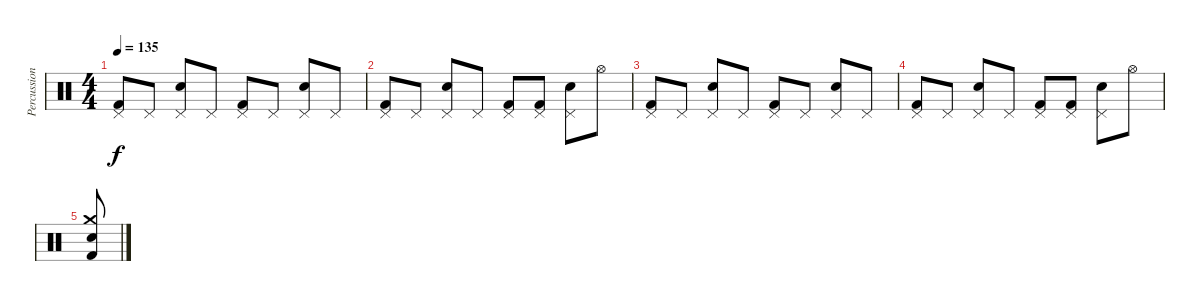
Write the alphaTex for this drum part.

\track ("Percussion" "Percussion") {instrument percussion}
\staff {score}
\articulation defaults
\ts (4 4)
\tempo 135
\clef neutral
\ks c
("Pedal Hi-Hat (hit)" "Kick (hit) 2").8{dy f} "Pedal Hi-Hat (hit)".8 ("Pedal Hi-Hat (hit)" "Electric Snare (hit)").8 "Pedal Hi-Hat (hit)".8 ("Pedal Hi-Hat (hit)" "Kick (hit) 2").8 "Pedal Hi-Hat (hit)".8 ("Pedal Hi-Hat (hit)" "Electric Snare (hit)").8 "Pedal Hi-Hat (hit)".8 |
("Pedal Hi-Hat (hit)" "Kick (hit) 2").8 "Pedal Hi-Hat (hit)".8 ("Pedal Hi-Hat (hit)" "Electric Snare (hit)").8 "Pedal Hi-Hat (hit)".8 ("Pedal Hi-Hat (hit)" "Kick (hit) 2").8 ("Pedal Hi-Hat (hit)" "Kick (hit) 2").8 ("Pedal Hi-Hat (hit)" "Electric Snare (hit)").8 "Hi-Hat (open)".8 |
("Pedal Hi-Hat (hit)" "Kick (hit) 2").8 "Pedal Hi-Hat (hit)".8 ("Pedal Hi-Hat (hit)" "Electric Snare (hit)").8 "Pedal Hi-Hat (hit)".8 ("Pedal Hi-Hat (hit)" "Kick (hit) 2").8 "Pedal Hi-Hat (hit)".8 ("Pedal Hi-Hat (hit)" "Electric Snare (hit)").8 "Pedal Hi-Hat (hit)".8 |
("Pedal Hi-Hat (hit)" "Kick (hit) 2").8 "Pedal Hi-Hat (hit)".8 ("Pedal Hi-Hat (hit)" "Electric Snare (hit)").8 "Pedal Hi-Hat (hit)".8 ("Pedal Hi-Hat (hit)" "Kick (hit) 2").8 ("Pedal Hi-Hat (hit)" "Kick (hit) 2").8 ("Pedal Hi-Hat (hit)" "Electric Snare (hit)").8 "Hi-Hat (open)".8 |
("Crash medium (hit)" "Snare (hit) 2" "Kick (hit) 2").8
